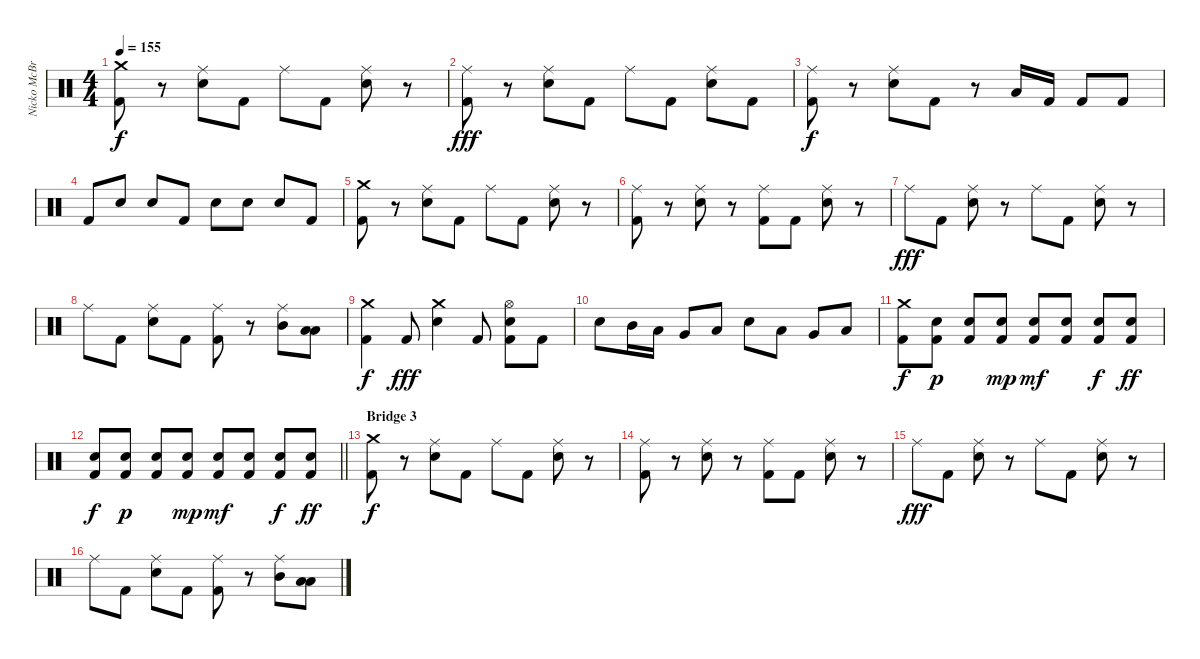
\track ("Nicko McBrain" "Nicko McBr") {instrument percussion}
\staff {score}
\articulation defaults
\ts (4 4)
\tempo 155
\clef neutral
\ks c
("Crash medium (hit)" "Kick (hit) 2").8{dy f} r.8 ("Ride (middle)" "Snare (hit) 2").8 "Kick (hit) 2".8 "Ride (middle)".8 "Kick (hit) 2".8 ("Ride (middle)" "Snare (hit) 2").8 r.8 |
("Ride (middle)" "Kick (hit) 2").8{dy fff} r.8 ("Ride (middle)" "Snare (hit) 2").8 "Kick (hit) 2".8 "Ride (middle)".8 "Kick (hit) 2".8 ("Ride (middle)" "Snare (hit) 2").8 "Kick (hit) 2".8 |
("Ride (middle)" "Kick (hit) 2").8{dy f} r.8 ("Ride (middle)" "Snare (hit) 2").8 "Kick (hit) 2".8 r.8 "Low Floor Tom (hit)".16 "Kick (hit) 2".16 "Kick (hit) 2".8 "Kick (hit) 2".8 |
"Kick (hit) 2".8 "Snare (hit) 2".8 "Snare (hit) 2".8 "Kick (hit) 2".8 "Snare (hit) 2".8 "Snare (hit) 2".8 "Snare (hit) 2".8 "Kick (hit) 2".8 |
("Crash medium (hit)" "Kick (hit) 2").8 r.8 ("Ride (middle)" "Snare (hit) 2").8 "Kick (hit) 2".8 "Ride (middle)".8 "Kick (hit) 2".8 ("Ride (middle)" "Snare (hit) 2").8 r.8 |
("Ride (middle)" "Kick (hit) 2").8 r.8 ("Ride (middle)" "Snare (hit) 2").8 r.8 ("Ride (middle)" "Kick (hit) 2").8 "Kick (hit) 2".8 ("Ride (middle)" "Snare (hit) 2").8 r.8 |
"Ride (middle)".8{dy fff} "Kick (hit) 2".8 ("Ride (middle)" "Snare (hit) 2").8 r.8 "Ride (middle)".8 "Kick (hit) 2".8 ("Ride (middle)" "Snare (hit) 2").8 r.8 |
"Ride (middle)".8 "Kick (hit) 2".8 ("Ride (middle)" "Snare (hit) 2").8 "Kick (hit) 2".8 ("Ride (middle)" "Kick (hit) 2").8 r.8 ("Ride (middle)" "Mid Tom (hit)").8 ("Low Floor Tom (hit)" "Low Floor Tom (hit)").8 |
("Crash medium (hit)" "Kick (hit) 2").4{dy f} "Kick (hit) 2".8{dy fff} ("Crash medium (hit)" "Snare (hit) 2").4 "Kick (hit) 2".8 ("Hi-Hat (open)" "Snare (hit) 2" "Kick (hit) 2").8 "Kick (hit) 2".8 |
"Snare (hit) 2".8 "Mid Tom (hit)".16 "Low Tom (hit)".16 "Very Low Tom (hit)".8 "Low Floor Tom (hit)".8 "Snare (hit) 2".8 "Low Tom (hit)".8 "Very Low Tom (hit)".8 "Low Floor Tom (hit)".8 |
("Crash medium (hit)" "Kick (hit) 2").8{dy f} ("Snare (hit) 2" "Kick (hit) 2").8{dy p} ("Snare (hit) 2" "Kick (hit) 2").8 ("Snare (hit) 2" "Kick (hit) 2").8{dy mp} ("Snare (hit) 2" "Kick (hit) 2").8{dy mf} ("Snare (hit) 2" "Kick (hit) 2").8 ("Snare (hit) 2" "Kick (hit) 2").8{dy f} ("Snare (hit) 2" "Kick (hit) 2").8{dy ff} |
\barLineRight lightlight
("Snare (hit) 2" "Kick (hit) 2").8{dy f} ("Snare (hit) 2" "Kick (hit) 2").8{dy p} ("Snare (hit) 2" "Kick (hit) 2").8 ("Snare (hit) 2" "Kick (hit) 2").8{dy mp} ("Snare (hit) 2" "Kick (hit) 2").8{dy mf} ("Snare (hit) 2" "Kick (hit) 2").8 ("Snare (hit) 2" "Kick (hit) 2").8{dy f} ("Snare (hit) 2" "Kick (hit) 2").8{dy ff} |
\section ("" "Bridge 3")
("Crash medium (hit)" "Kick (hit) 2").8{dy f} r.8 ("Ride (middle)" "Snare (hit) 2").8 "Kick (hit) 2".8 "Ride (middle)".8 "Kick (hit) 2".8 ("Ride (middle)" "Snare (hit) 2").8 r.8 |
("Ride (middle)" "Kick (hit) 2").8 r.8 ("Ride (middle)" "Snare (hit) 2").8 r.8 ("Ride (middle)" "Kick (hit) 2").8 "Kick (hit) 2".8 ("Ride (middle)" "Snare (hit) 2").8 r.8 |
"Ride (middle)".8{dy fff} "Kick (hit) 2".8 ("Ride (middle)" "Snare (hit) 2").8 r.8 "Ride (middle)".8 "Kick (hit) 2".8 ("Ride (middle)" "Snare (hit) 2").8 r.8 |
"Ride (middle)".8 "Kick (hit) 2".8 ("Ride (middle)" "Snare (hit) 2").8 "Kick (hit) 2".8 ("Ride (middle)" "Kick (hit) 2").8 r.8 ("Ride (middle)" "Mid Tom (hit)").8 ("Low Floor Tom (hit)" "Low Floor Tom (hit)").8
